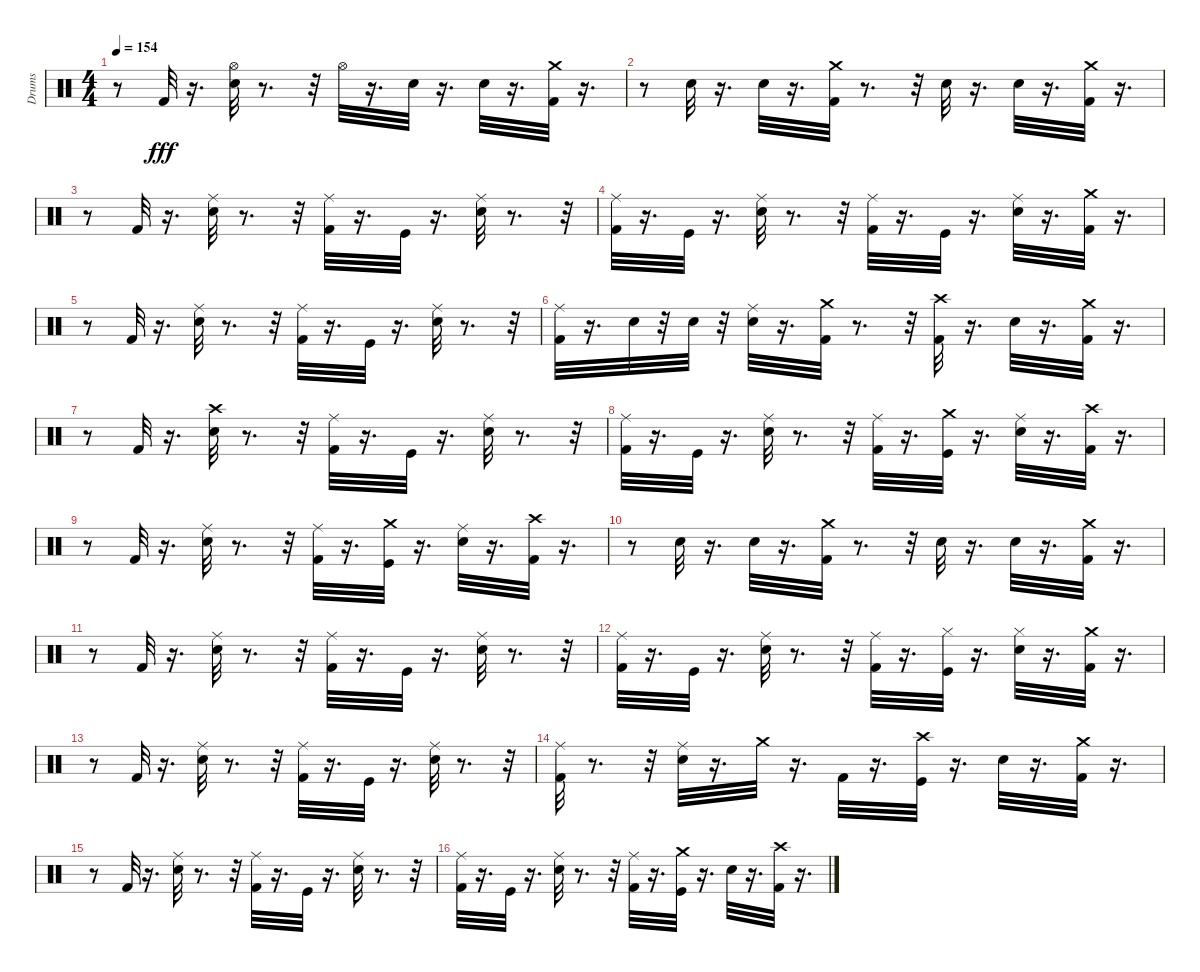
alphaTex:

\track ("Drums" "Drums") {instrument percussion}
\staff {score}
\articulation defaults
\ts (4 4)
\tempo 154
\clef neutral
\ks c
r.8{dy fff} "Kick (hit) 2".32 r.16{d} ("Snare (hit) 2" "Hi-Hat (open)").32 r.8{d} r.32 "Hi-Hat (open)".32 r.16{d} "Snare (hit) 2".32 r.16{d} "Snare (hit) 2".32 r.16{d} ("Crash medium (hit)" "Kick (hit) 2").32 r.16{d} |
r.8 "Snare (hit) 2".32 r.16{d} "Snare (hit) 2".32 r.16{d} ("Kick (hit) 2" "Crash medium (hit)").32 r.8{d} r.32 "Snare (hit) 2".32 r.16{d} "Snare (hit) 2".32 r.16{d} ("Crash medium (hit)" "Kick (hit) 2").32 r.16{d} |
r.8 "Kick (hit) 2".32 r.16{d} ("Snare (hit) 2" "Ride (middle)").32 r.8{d} r.32 ("Kick (hit) 2" "Ride (middle)").32 r.16{d} "Kick (hit)".32 r.16{d} ("Snare (hit) 2" "Ride (middle)").32 r.8{d} r.32 |
("Kick (hit) 2" "Ride (middle)").32 r.16{d} "Kick (hit)".32 r.16{d} ("Snare (hit) 2" "Ride (middle)").32 r.8{d} r.32 ("Ride (middle)" "Kick (hit) 2").32 r.16{d} "Kick (hit)".32 r.16{d} ("Snare (hit) 2" "Ride (middle)").32 r.16{d} ("Kick (hit) 2" "Crash medium (hit)").32 r.16{d} |
r.8 "Kick (hit) 2".32 r.16{d} ("Snare (hit) 2" "Ride (middle)").32 r.8{d} r.32 ("Kick (hit) 2" "Ride (middle)").32 r.16{d} "Kick (hit)".32 r.16{d} ("Snare (hit) 2" "Ride (middle)").32 r.8{d} r.32 |
("Kick (hit) 2" "Ride (middle)").32 r.16{d} "Snare (hit) 2".32 r.32 "Snare (hit) 2".32 r.32 ("Snare (hit) 2" "Ride (middle)").32 r.16{d} ("Kick (hit) 2" "Crash medium (hit)").32 r.8{d} r.32 ("Kick (hit) 2" "Crash high (hit)").32 r.16{d} "Snare (hit) 2".32 r.16{d} ("Kick (hit) 2" "Crash medium (hit)").32 r.16{d} |
r.8 "Kick (hit) 2".32 r.16{d} ("Snare (hit) 2" "Crash high (hit)").32 r.8{d} r.32 ("Kick (hit) 2" "Ride (middle)").32 r.16{d} "Kick (hit)".32 r.16{d} ("Snare (hit) 2" "Ride (middle)").32 r.8{d} r.32 |
("Kick (hit) 2" "Ride (middle)").32 r.16{d} "Kick (hit)".32 r.16{d} ("Snare (hit) 2" "Ride (middle)").32 r.8{d} r.32 ("Kick (hit) 2" "Ride (middle)").32 r.16{d} ("Kick (hit)" "Crash medium (hit)").32 r.16{d} ("Snare (hit) 2" "Ride (middle)").32 r.16{d} ("Kick (hit) 2" "Crash high (hit)").32 r.16{d} |
r.8 "Kick (hit) 2".32 r.16{d} ("Snare (hit) 2" "Ride (middle)").32 r.8{d} r.32 ("Kick (hit) 2" "Ride (middle)").32 r.16{d} ("Kick (hit)" "Crash medium (hit)").32 r.16{d} ("Snare (hit) 2" "Ride (middle)").32 r.16{d} ("Kick (hit) 2" "Crash high (hit)").32 r.16{d} |
r.8 "Snare (hit) 2".32 r.16{d} "Snare (hit) 2".32 r.16{d} ("Kick (hit) 2" "Crash medium (hit)").32 r.8{d} r.32 "Snare (hit) 2".32 r.16{d} "Snare (hit) 2".32 r.16{d} ("Kick (hit) 2" "Crash medium (hit)").32 r.16{d} |
r.8 "Kick (hit) 2".32 r.16{d} ("Snare (hit) 2" "Ride (middle)").32 r.8{d} r.32 ("Kick (hit) 2" "Ride (middle)").32 r.16{d} "Kick (hit)".32 r.16{d} ("Snare (hit) 2" "Ride (middle)").32 r.8{d} r.32 |
("Kick (hit) 2" "Ride (middle)").32 r.16{d} "Kick (hit)".32 r.16{d} ("Snare (hit) 2" "Ride (middle)").32 r.8{d} r.32 ("Kick (hit) 2" "Ride (middle)").32 r.16{d} ("Kick (hit)" "Hi-Hat (closed)").32 r.16{d} ("Snare (hit) 2" "Hi-Hat (closed)").32 r.16{d} ("Kick (hit) 2" "Crash medium (hit)").32 r.16{d} |
r.8 "Kick (hit) 2".32 r.16{d} ("Snare (hit) 2" "Ride (middle)").32 r.8{d} r.32 ("Kick (hit) 2" "Ride (middle)").32 r.16{d} "Kick (hit)".32 r.16{d} ("Snare (hit) 2" "Ride (middle)").32 r.8{d} r.32 |
("Kick (hit) 2" "Ride (middle)").32 r.8{d} r.32 ("Snare (hit) 2" "Ride (middle)").32 r.16{d} "Crash medium (hit)".32 r.16{d} "Kick (hit) 2".32 r.16{d} ("Kick (hit)" "Crash high (hit)").32 r.16{d} "Snare (hit) 2".32 r.16{d} ("Kick (hit) 2" "Crash medium (hit)").32 r.16{d} |
r.8 "Kick (hit) 2".32 r.16{d} ("Snare (hit) 2" "Ride (middle)").32 r.8{d} r.32 ("Kick (hit) 2" "Ride (middle)").32 r.16{d} "Kick (hit)".32 r.16{d} ("Snare (hit) 2" "Ride (middle)").32 r.8{d} r.32 |
("Kick (hit) 2" "Ride (middle)").32 r.16{d} "Kick (hit)".32 r.16{d} ("Snare (hit) 2" "Ride (middle)").32 r.8{d} r.32 ("Kick (hit) 2" "Ride (middle)").32 r.16{d} ("Kick (hit)" "Crash medium (hit)").32 r.16{d} "Snare (hit) 2".32 r.16{d} ("Kick (hit) 2" "Crash high (hit)").32 r.16{d}
